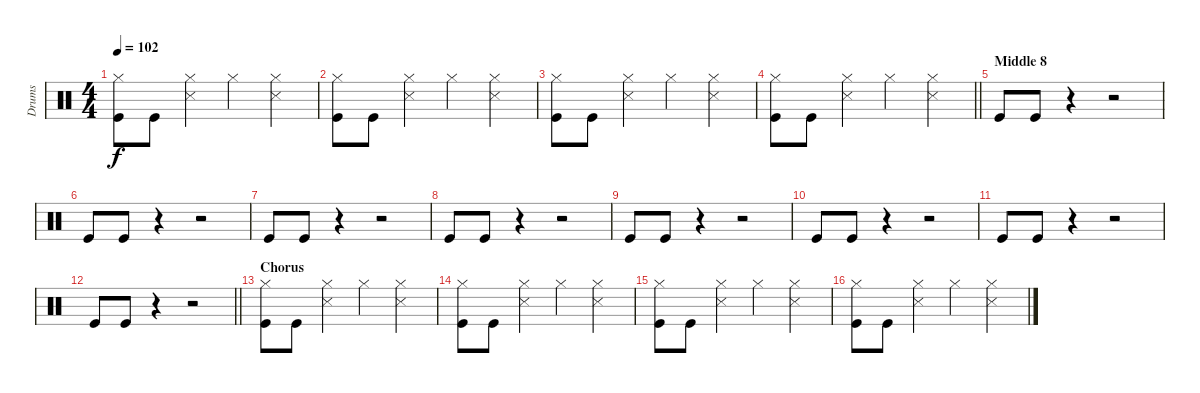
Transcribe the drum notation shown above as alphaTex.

\track ("Drums" "Drums") {instrument percussion}
\staff {score}
\articulation defaults
\ts (4 4)
\tempo 102
\clef neutral
\ks c
("Hi-Hat (closed)" "Kick (hit)").8{dy f} "Kick (hit)".8 ("Hi-Hat (closed)" "Snare (side stick) 3").4 "Hi-Hat (closed)".4 ("Hi-Hat (closed)" "Snare (side stick) 3").4 |
("Hi-Hat (closed)" "Kick (hit)").8 "Kick (hit)".8 ("Hi-Hat (closed)" "Snare (side stick) 3").4 "Hi-Hat (closed)".4 ("Hi-Hat (closed)" "Snare (side stick) 3").4 |
("Hi-Hat (closed)" "Kick (hit)").8 "Kick (hit)".8 ("Hi-Hat (closed)" "Snare (side stick) 3").4 "Hi-Hat (closed)".4 ("Hi-Hat (closed)" "Snare (side stick) 3").4 |
\barLineRight lightlight
("Hi-Hat (closed)" "Kick (hit)").8 "Kick (hit)".8 ("Hi-Hat (closed)" "Snare (side stick) 3").4 "Hi-Hat (closed)".4 ("Hi-Hat (closed)" "Snare (side stick) 3").4 |
\section ("" "Middle 8")
"Kick (hit)".8 "Kick (hit)".8 r.4 r.2 |
"Kick (hit)".8 "Kick (hit)".8 r.4 r.2 |
"Kick (hit)".8 "Kick (hit)".8 r.4 r.2 |
"Kick (hit)".8 "Kick (hit)".8 r.4 r.2 |
"Kick (hit)".8 "Kick (hit)".8 r.4 r.2 |
"Kick (hit)".8 "Kick (hit)".8 r.4 r.2 |
"Kick (hit)".8 "Kick (hit)".8 r.4 r.2 |
\barLineRight lightlight "Kick (hit)".8 "Kick (hit)".8
r.4 r.2 |
\section ("" "Chorus")
("Hi-Hat (closed)" "Kick (hit)").8 "Kick (hit)".8 ("Hi-Hat (closed)" "Snare (side stick) 3").4 "Hi-Hat (closed)".4 ("Hi-Hat (closed)" "Snare (side stick) 3").4 |
("Hi-Hat (closed)" "Kick (hit)").8 "Kick (hit)".8 ("Hi-Hat (closed)" "Snare (side stick) 3").4 "Hi-Hat (closed)".4 ("Hi-Hat (closed)" "Snare (side stick) 3").4 |
("Hi-Hat (closed)" "Kick (hit)").8 "Kick (hit)".8 ("Hi-Hat (closed)" "Snare (side stick) 3").4 "Hi-Hat (closed)".4 ("Hi-Hat (closed)" "Snare (side stick) 3").4 |
("Hi-Hat (closed)" "Kick (hit)").8 "Kick (hit)".8 ("Hi-Hat (closed)" "Snare (side stick) 3").4 "Hi-Hat (closed)".4 ("Hi-Hat (closed)" "Snare (side stick) 3").4
